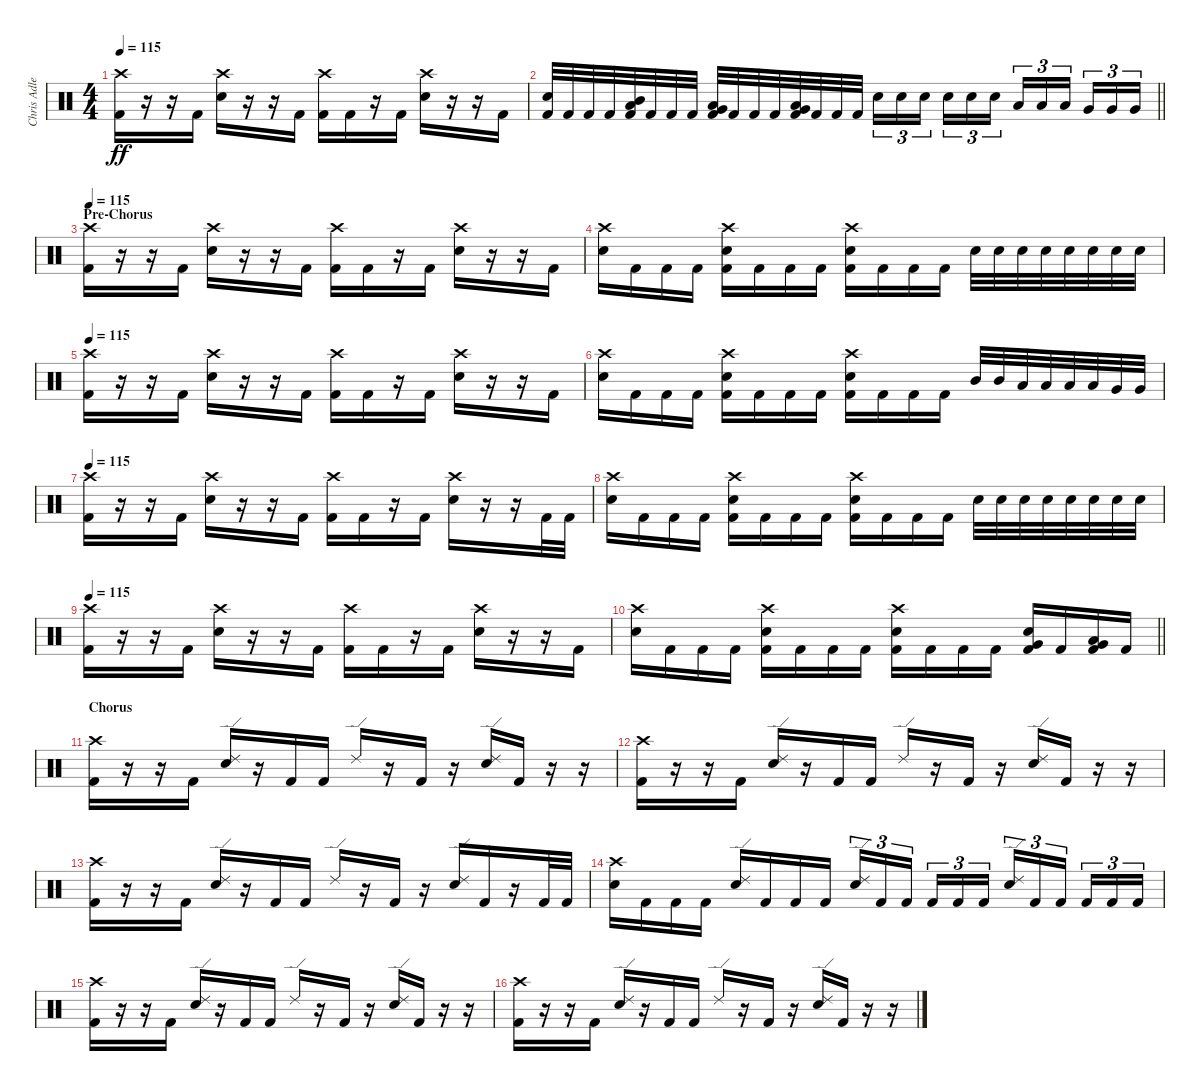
\track ("Chris Adler" "Chris Adle") {instrument percussion}
\staff {score}
\articulation defaults
\ts (4 4)
\tempo 115
\clef neutral
\ks c
("Crash high (hit)" "Kick (hit) 2").16{dy ff} r.16 r.16 "Kick (hit) 2".16 ("Crash high (hit)" "Snare (hit) 2").16 r.16 r.16 "Kick (hit) 2".16 ("Crash high (hit)" "Kick (hit) 2").16 "Kick (hit) 2".16 r.16 "Kick (hit) 2".16 ("Crash high (hit)" "Snare (hit) 2").16 r.16 r.16 "Kick (hit) 2".16 |
\barLineRight lightlight
("Snare (hit) 2" "Kick (hit) 2").32 "Kick (hit) 2".32 "Kick (hit) 2".32 "Kick (hit) 2".32 ("Mid Tom (hit)" "Low Tom (hit)" "Kick (hit) 2").32 "Kick (hit) 2".32 "Kick (hit) 2".32 "Kick (hit) 2".32 ("Low Tom (hit)" "Very Low Tom (hit)" "Kick (hit) 2").32 "Kick (hit) 2".32 "Kick (hit) 2".32 "Kick (hit) 2".32 ("Very Low Tom (hit)" "Low Floor Tom (hit)" "Kick (hit) 2").32 "Kick (hit) 2".32 "Kick (hit) 2".32 "Kick (hit) 2".32 "Snare (hit) 2".16{tu (3 2)} "Snare (hit) 2".16{tu (3 2)} "Snare (hit) 2".16{tu (3 2) beam splitsecondary} "Snare (hit) 2".16{tu (3 2)} "Snare (hit) 2".16{tu (3 2)} "Snare (hit) 2".16{tu (3 2)} "Low Tom (hit)".16{tu (3 2)} "Low Tom (hit)".16{tu (3 2)} "Low Tom (hit)".16{tu (3 2) beam splitsecondary} "Very Low Tom (hit)".16{tu (3 2)} "Very Low Tom (hit)".16{tu (3 2)} "Very Low Tom (hit)".16{tu (3 2)} |
\section ("" "Pre-Chorus")
\tempo 115
("Crash high (hit)" "Kick (hit) 2").16 r.16 r.16 "Kick (hit) 2".16 ("Crash high (hit)" "Snare (hit) 2").16 r.16 r.16 "Kick (hit) 2".16 ("Crash high (hit)" "Kick (hit) 2").16 "Kick (hit) 2".16 r.16 "Kick (hit) 2".16 ("Crash high (hit)" "Snare (hit) 2").16 r.16 r.16 "Kick (hit) 2".16 |
("Crash high (hit)" "Snare (hit) 2").16 "Kick (hit) 2".16 "Kick (hit) 2".16 "Kick (hit) 2".16 ("Crash high (hit)" "Snare (hit) 2" "Kick (hit) 2").16 "Kick (hit) 2".16 "Kick (hit) 2".16 "Kick (hit) 2".16 ("Crash high (hit)" "Snare (hit) 2" "Kick (hit) 2").16 "Kick (hit) 2".16 "Kick (hit) 2".16 "Kick (hit) 2".16 "Snare (hit) 2".32 "Snare (hit) 2".32 "Snare (hit) 2".32 "Snare (hit) 2".32 "Snare (hit) 2".32 "Snare (hit) 2".32 "Snare (hit) 2".32 "Snare (hit) 2".32 |
\tempo 115
("Crash high (hit)" "Kick (hit) 2").16 r.16 r.16 "Kick (hit) 2".16 ("Crash high (hit)" "Snare (hit) 2").16 r.16 r.16 "Kick (hit) 2".16 ("Crash high (hit)" "Kick (hit) 2").16 "Kick (hit) 2".16 r.16 "Kick (hit) 2".16 ("Crash high (hit)" "Snare (hit) 2").16 r.16 r.16 "Kick (hit) 2".16 |
("Crash high (hit)" "Snare (hit) 2").16 "Kick (hit) 2".16 "Kick (hit) 2".16 "Kick (hit) 2".16 ("Crash high (hit)" "Snare (hit) 2" "Kick (hit) 2").16 "Kick (hit) 2".16 "Kick (hit) 2".16 "Kick (hit) 2".16 ("Crash high (hit)" "Snare (hit) 2" "Kick (hit) 2").16 "Kick (hit) 2".16 "Kick (hit) 2".16 "Kick (hit) 2".16 "Mid Tom (hit)".32 "Mid Tom (hit)".32 "Low Tom (hit)".32 "Low Tom (hit)".32 "Low Tom (hit)".32 "Low Tom (hit)".32 "Very Low Tom (hit)".32 "Very Low Tom (hit)".32 |
\tempo 115
("Crash high (hit)" "Kick (hit) 2").16 r.16 r.16 "Kick (hit) 2".16 ("Crash high (hit)" "Snare (hit) 2").16 r.16 r.16 "Kick (hit) 2".16 ("Crash high (hit)" "Kick (hit) 2").16 "Kick (hit) 2".16 r.16 "Kick (hit) 2".16 ("Crash high (hit)" "Snare (hit) 2").16 r.16 r.16 "Kick (hit) 2".32 "Kick (hit) 2".32 |
("Crash high (hit)" "Snare (hit) 2").16 "Kick (hit) 2".16 "Kick (hit) 2".16 "Kick (hit) 2".16 ("Crash high (hit)" "Snare (hit) 2" "Kick (hit) 2").16 "Kick (hit) 2".16 "Kick (hit) 2".16 "Kick (hit) 2".16 ("Crash high (hit)" "Snare (hit) 2" "Kick (hit) 2").16 "Kick (hit) 2".16 "Kick (hit) 2".16 "Kick (hit) 2".16 "Snare (hit) 2".32 "Snare (hit) 2".32 "Snare (hit) 2".32 "Snare (hit) 2".32 "Snare (hit) 2".32 "Snare (hit) 2".32 "Snare (hit) 2".32 "Snare (hit) 2".32 |
\tempo 115
("Crash high (hit)" "Kick (hit) 2").16 r.16 r.16 "Kick (hit) 2".16 ("Crash high (hit)" "Snare (hit) 2").16 r.16 r.16 "Kick (hit) 2".16 ("Crash high (hit)" "Kick (hit) 2").16 "Kick (hit) 2".16 r.16 "Kick (hit) 2".16 ("Crash high (hit)" "Snare (hit) 2").16 r.16 r.16 "Kick (hit) 2".16 |
\barLineRight lightlight
("Crash high (hit)" "Snare (hit) 2").16 "Kick (hit) 2".16 "Kick (hit) 2".16 "Kick (hit) 2".16 ("Crash high (hit)" "Snare (hit) 2" "Kick (hit) 2").16 "Kick (hit) 2".16 "Kick (hit) 2".16 "Kick (hit) 2".16 ("Crash high (hit)" "Snare (hit) 2" "Kick (hit) 2").16 "Kick (hit) 2".16 "Kick (hit) 2".16 "Kick (hit) 2".16 ("Very Low Tom (hit)" "Snare (hit) 2" "Kick (hit) 2").16 "Kick (hit) 2".16 ("Low Tom (hit)" "Very Low Tom (hit)" "Kick (hit) 2").16 "Kick (hit) 2".16 |
\section ("" "Chorus")
("Crash high (hit)" "Kick (hit) 2").16 r.16 r.16 "Kick (hit) 2".16 ("Ride (edge) 2" "Snare (hit) 2").16 r.16 "Kick (hit) 2".16 "Kick (hit) 2".16 "Ride (edge) 2".16 r.16 "Kick (hit) 2".16 r.16 ("Ride (edge) 2" "Snare (hit) 2").16 "Kick (hit) 2".16 r.16 r.16 |
("Crash high (hit)" "Kick (hit) 2").16 r.16 r.16 "Kick (hit) 2".16 ("Ride (edge) 2" "Snare (hit) 2").16 r.16 "Kick (hit) 2".16 "Kick (hit) 2".16 "Ride (edge) 2".16 r.16 "Kick (hit) 2".16 r.16 ("Ride (edge) 2" "Snare (hit) 2").16 "Kick (hit) 2".16 r.16 r.16 |
("Crash high (hit)" "Kick (hit) 2").16 r.16 r.16 "Kick (hit) 2".16 ("Ride (edge) 2" "Snare (hit) 2").16 r.16 "Kick (hit) 2".16 "Kick (hit) 2".16 "Ride (edge) 2".16 r.16 "Kick (hit) 2".16 r.16 ("Ride (edge) 2" "Snare (hit) 2").16 "Kick (hit) 2".16 r.16 "Kick (hit) 2".32 "Kick (hit) 2".32 |
("Crash high (hit)" "Snare (hit) 2").16 "Kick (hit) 2".16 "Kick (hit) 2".16 "Kick (hit) 2".16 ("Ride (edge) 2" "Snare (hit) 2").16 "Kick (hit) 2".16 "Kick (hit) 2".16 "Kick (hit) 2".16 ("Ride (edge) 2" "Snare (hit) 2").16{tu (3 2)} "Kick (hit) 2".16{tu (3 2)} "Kick (hit) 2".16{tu (3 2) beam splitsecondary} "Kick (hit) 2".16{tu (3 2)} "Kick (hit) 2".16{tu (3 2)} "Kick (hit) 2".16{tu (3 2)} ("Ride (edge) 2" "Snare (hit) 2").16{tu (3 2)} "Kick (hit) 2".16{tu (3 2)} "Kick (hit) 2".16{tu (3 2) beam splitsecondary} "Kick (hit) 2".16{tu (3 2)} "Kick (hit) 2".16{tu (3 2)} "Kick (hit) 2".16{tu (3 2)} |
("Crash high (hit)" "Kick (hit) 2").16 r.16 r.16 "Kick (hit) 2".16 ("Ride (edge) 2" "Snare (hit) 2").16 r.16 "Kick (hit) 2".16 "Kick (hit) 2".16 "Ride (edge) 2".16 r.16 "Kick (hit) 2".16 r.16 ("Ride (edge) 2" "Snare (hit) 2").16 "Kick (hit) 2".16 r.16 r.16 |
("Crash high (hit)" "Kick (hit) 2").16 r.16 r.16 "Kick (hit) 2".16 ("Ride (edge) 2" "Snare (hit) 2").16 r.16 "Kick (hit) 2".16 "Kick (hit) 2".16 "Ride (edge) 2".16 r.16 "Kick (hit) 2".16 r.16 ("Ride (edge) 2" "Snare (hit) 2").16 "Kick (hit) 2".16 r.16 r.16
